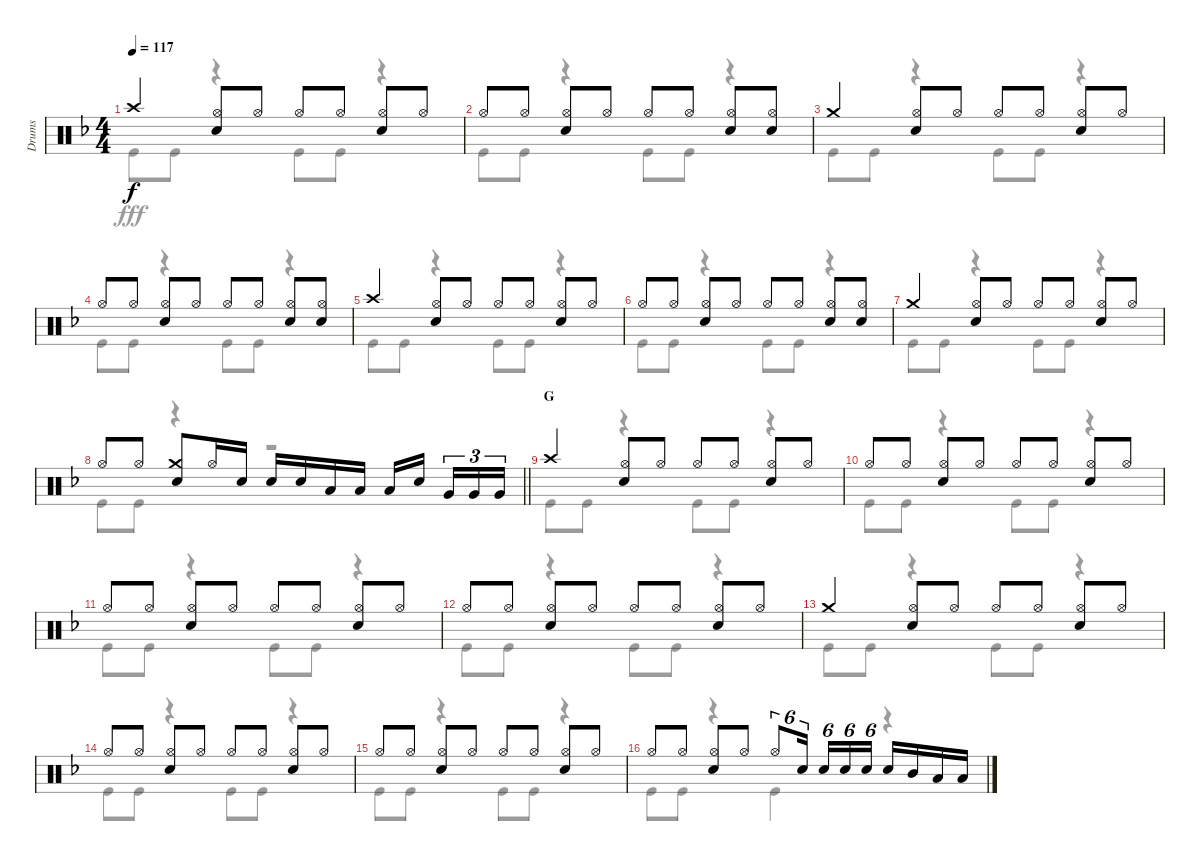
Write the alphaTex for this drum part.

\track ("Drums" "Drums") {instrument percussion}
\staff {score}
\articulation defaults
\voice
\ts (4 4)
\tempo 117
\clef neutral
\ks f "Crash high (hit)".4{dy f}
("Hi-Hat (open)" "Snare (hit) 2").8 "Hi-Hat (open)".8 "Hi-Hat (open)".8 "Hi-Hat (open)".8 ("Hi-Hat (open)" "Snare (hit) 2").8 "Hi-Hat (open)".8 |
"Hi-Hat (open)".8 "Hi-Hat (open)".8 ("Hi-Hat (open)" "Snare (hit) 2").8 "Hi-Hat (open)".8 "Hi-Hat (open)".8 "Hi-Hat (open)".8 ("Hi-Hat (open)" "Snare (hit) 2").8 ("Hi-Hat (open)" "Snare (hit) 2").8 |
"Crash medium (hit)".4 ("Hi-Hat (open)" "Snare (hit) 2").8 "Hi-Hat (open)".8 "Hi-Hat (open)".8 "Hi-Hat (open)".8 ("Hi-Hat (open)" "Snare (hit) 2").8 "Hi-Hat (open)".8 |
"Hi-Hat (open)".8 "Hi-Hat (open)".8 ("Hi-Hat (open)" "Snare (hit) 2").8 "Hi-Hat (open)".8 "Hi-Hat (open)".8 "Hi-Hat (open)".8 ("Hi-Hat (open)" "Snare (hit) 2").8 ("Hi-Hat (open)" "Snare (hit) 2").8 |
"Crash high (hit)".4 ("Hi-Hat (open)" "Snare (hit) 2").8 "Hi-Hat (open)".8 "Hi-Hat (open)".8 "Hi-Hat (open)".8 ("Hi-Hat (open)" "Snare (hit) 2").8 "Hi-Hat (open)".8 |
"Hi-Hat (open)".8 "Hi-Hat (open)".8 ("Hi-Hat (open)" "Snare (hit) 2").8 "Hi-Hat (open)".8 "Hi-Hat (open)".8 "Hi-Hat (open)".8 ("Hi-Hat (open)" "Snare (hit) 2").8 ("Hi-Hat (open)" "Snare (hit) 2").8 |
"Crash medium (hit)".4 ("Hi-Hat (open)" "Snare (hit) 2").8 "Hi-Hat (open)".8 "Hi-Hat (open)".8 "Hi-Hat (open)".8 ("Hi-Hat (open)" "Snare (hit) 2").8 "Hi-Hat (open)".8 |
\barLineRight lightlight "Hi-Hat (open)".8 "Hi-Hat (open)".8
("Crash medium (hit)" "Snare (hit) 2").8 "Hi-Hat (open)".16 "Snare (hit) 2".16 "Snare (hit) 2".16 "Snare (hit) 2".16 "Low Tom (hit)".16 "Low Tom (hit)".16 "Low Tom (hit)".16 "Snare (hit) 2".16{beam splitsecondary} "Very Low Tom (hit)".16{tu (3 2)} "Very Low Tom (hit)".16{tu (3 2)} "Very Low Tom (hit)".16{tu (3 2)} |
\section ("" "G")
"Crash high (hit)".4 ("Hi-Hat (open)" "Snare (hit) 2").8 "Hi-Hat (open)".8 "Hi-Hat (open)".8 "Hi-Hat (open)".8 ("Hi-Hat (open)" "Snare (hit) 2").8 "Hi-Hat (open)".8 |
"Hi-Hat (open)".8 "Hi-Hat (open)".8 ("Hi-Hat (open)" "Snare (hit) 2").8 "Hi-Hat (open)".8 "Hi-Hat (open)".8 "Hi-Hat (open)".8 ("Hi-Hat (open)" "Snare (hit) 2").8 "Hi-Hat (open)".8 |
"Hi-Hat (open)".8 "Hi-Hat (open)".8 ("Hi-Hat (open)" "Snare (hit) 2").8 "Hi-Hat (open)".8 "Hi-Hat (open)".8 "Hi-Hat (open)".8 ("Hi-Hat (open)" "Snare (hit) 2").8 "Hi-Hat (open)".8 |
"Hi-Hat (open)".8 "Hi-Hat (open)".8 ("Hi-Hat (open)" "Snare (hit) 2").8 "Hi-Hat (open)".8 "Hi-Hat (open)".8 "Hi-Hat (open)".8 ("Hi-Hat (open)" "Snare (hit) 2").8 "Hi-Hat (open)".8 |
"Crash medium (hit)".4 ("Hi-Hat (open)" "Snare (hit) 2").8 "Hi-Hat (open)".8 "Hi-Hat (open)".8 "Hi-Hat (open)".8 ("Hi-Hat (open)" "Snare (hit) 2").8 "Hi-Hat (open)".8 |
"Hi-Hat (open)".8 "Hi-Hat (open)".8 ("Hi-Hat (open)" "Snare (hit) 2").8 "Hi-Hat (open)".8 "Hi-Hat (open)".8 "Hi-Hat (open)".8 ("Hi-Hat (open)" "Snare (hit) 2").8 "Hi-Hat (open)".8 |
"Hi-Hat (open)".8 "Hi-Hat (open)".8 ("Hi-Hat (open)" "Snare (hit) 2").8 "Hi-Hat (open)".8 "Hi-Hat (open)".8 "Hi-Hat (open)".8 ("Hi-Hat (open)" "Snare (hit) 2").8 "Hi-Hat (open)".8 |
"Hi-Hat (open)".8 "Hi-Hat (open)".8 ("Hi-Hat (open)" "Snare (hit) 2").8 "Hi-Hat (open)".8 "Hi-Hat (open)".8{tu (6 4)} "Snare (hit) 2".16{tu (6 4) beam splitsecondary} "Snare (hit) 2".16{tu (6 4)} "Snare (hit) 2".16{tu (6 4)} "Snare (hit) 2".16{tu (6 4)} "Snare (hit) 2".16 "Mid Tom (hit)".16 "Low Tom (hit)".16 "Low Tom (hit)".16
\voice
\clef neutral
\ottava regular
\simile none
\ks f "Kick (hit)".8{dy fff} "Kick (hit)".8
r.4 "Kick (hit)".8 "Kick (hit)".8 r.4 |
"Kick (hit)".8 "Kick (hit)".8 r.4 "Kick (hit)".8 "Kick (hit)".8 r.4 |
"Kick (hit)".8 "Kick (hit)".8 r.4 "Kick (hit)".8 "Kick (hit)".8 r.4 |
"Kick (hit)".8 "Kick (hit)".8 r.4 "Kick (hit)".8 "Kick (hit)".8 r.4 |
"Kick (hit)".8 "Kick (hit)".8 r.4 "Kick (hit)".8 "Kick (hit)".8 r.4 |
"Kick (hit)".8 "Kick (hit)".8 r.4 "Kick (hit)".8 "Kick (hit)".8 r.4 |
"Kick (hit)".8 "Kick (hit)".8 r.4 "Kick (hit)".8 "Kick (hit)".8 r.4 |
\barLineRight lightlight "Kick (hit)".8 "Kick (hit)".8
r.4 r.2 |
"Kick (hit)".8 "Kick (hit)".8 r.4 "Kick (hit)".8 "Kick (hit)".8 r.4 |
"Kick (hit)".8 "Kick (hit)".8 r.4 "Kick (hit)".8 "Kick (hit)".8 r.4 |
"Kick (hit)".8 "Kick (hit)".8 r.4 "Kick (hit)".8 "Kick (hit)".8 r.4 |
"Kick (hit)".8 "Kick (hit)".8 r.4 "Kick (hit)".8 "Kick (hit)".8 r.4 |
"Kick (hit)".8 "Kick (hit)".8 r.4 "Kick (hit)".8 "Kick (hit)".8 r.4 |
"Kick (hit)".8 "Kick (hit)".8 r.4 "Kick (hit)".8 "Kick (hit)".8 r.4 |
"Kick (hit)".8 "Kick (hit)".8 r.4 "Kick (hit)".8 "Kick (hit)".8 r.4 |
"Kick (hit)".8 "Kick (hit)".8 r.4 "Kick (hit)".4 r.4
